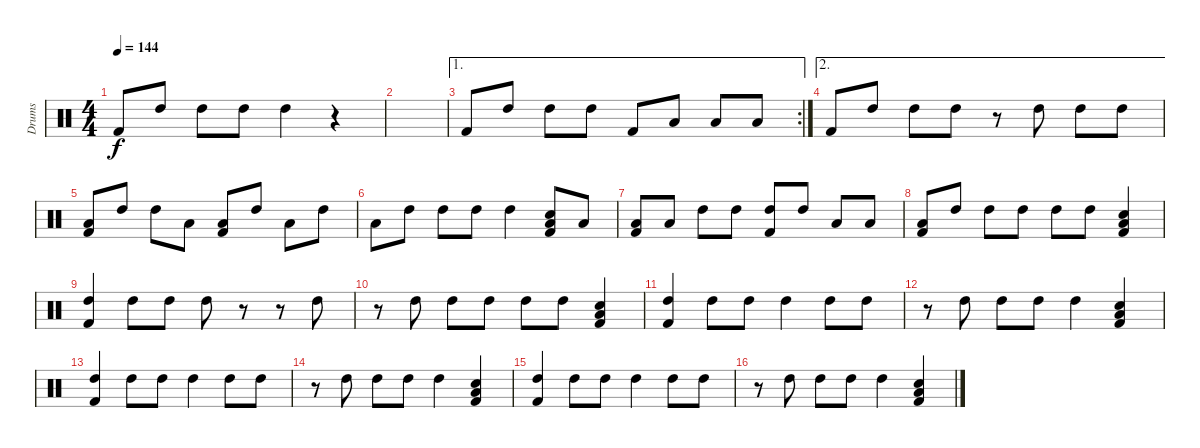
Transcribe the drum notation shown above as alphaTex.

\track ("Drums" "Drums") {instrument percussion}
\staff {score}
\articulation defaults
\ts (4 4)
\tempo 144
\clef neutral
\ks c "Kick (hit) 2".8{dy f} "High Tom (hit)".8 "High Tom (hit)".8 "High Tom (hit)".8 "High Tom (hit)".4
r.4 |
|
\ae 1
\rc 2 "Kick (hit) 2".8 "High Tom (hit)".8 "High Tom (hit)".8 "High Tom (hit)".8 "Kick (hit) 2".8 "Low Tom (hit)".8 "Low Tom (hit)".8 "Low Tom (hit)".8
|
\ae 2 "Kick (hit) 2".8 "High Tom (hit)".8 "High Tom (hit)".8 "High Tom (hit)".8
r.8 "High Tom (hit)".8 "High Tom (hit)".8 "High Tom (hit)".8 |
("Low Tom (hit)" "Kick (hit) 2").8 "High Tom (hit)".8 "High Tom (hit)".8 "Low Tom (hit)".8 ("Low Tom (hit)" "Kick (hit) 2").8 "High Tom (hit)".8 "Low Floor Tom (hit)".8 "High Tom (hit)".8 |
"Low Tom (hit)".8 "High Tom (hit)".8 "High Tom (hit)".8 "High Tom (hit)".8 "High Tom (hit)".4 ("Snare (hit) 2" "Low Tom (hit)" "Kick (hit) 2").8 "Low Tom (hit)".8 |
("Low Tom (hit)" "Kick (hit) 2").8 "Low Tom (hit)".8 "High Tom (hit)".8 "High Tom (hit)".8 ("High Tom (hit)" "Kick (hit) 2").8 "High Tom (hit)".8 "Low Tom (hit)".8 "Low Tom (hit)".8 |
("Low Tom (hit)" "Kick (hit) 2").8 "High Tom (hit)".8 "High Tom (hit)".8 "High Tom (hit)".8 "High Tom (hit)".8 "High Tom (hit)".8 ("Snare (hit) 2" "Low Tom (hit)" "Kick (hit) 2").4 |
("High Tom (hit)" "Kick (hit) 2").4 "High Tom (hit)".8 "High Tom (hit)".8 "High Tom (hit)".8 r.8 r.8 "High Tom (hit)".8 |
r.8 "High Tom (hit)".8 "High Tom (hit)".8 "High Tom (hit)".8 "High Tom (hit)".8 "High Tom (hit)".8 ("Snare (hit) 2" "Low Tom (hit)" "Kick (hit) 2").4 |
("High Tom (hit)" "Kick (hit) 2").4 "High Tom (hit)".8 "High Tom (hit)".8 "High Tom (hit)".4 "High Tom (hit)".8 "High Tom (hit)".8 |
r.8 "High Tom (hit)".8 "High Tom (hit)".8 "High Tom (hit)".8 "High Tom (hit)".4 ("Snare (hit) 2" "Low Tom (hit)" "Kick (hit) 2").4 |
("High Tom (hit)" "Kick (hit) 2").4 "High Tom (hit)".8 "High Tom (hit)".8 "High Tom (hit)".4 "High Tom (hit)".8 "High Tom (hit)".8 |
r.8 "High Tom (hit)".8 "High Tom (hit)".8 "High Tom (hit)".8 "High Tom (hit)".4 ("Snare (hit) 2" "Low Tom (hit)" "Kick (hit) 2").4 |
("High Tom (hit)" "Kick (hit) 2").4 "High Tom (hit)".8 "High Tom (hit)".8 "High Tom (hit)".4 "High Tom (hit)".8 "High Tom (hit)".8 |
r.8 "High Tom (hit)".8 "High Tom (hit)".8 "High Tom (hit)".8 "High Tom (hit)".4 ("Snare (hit) 2" "Low Tom (hit)" "Kick (hit) 2").4
